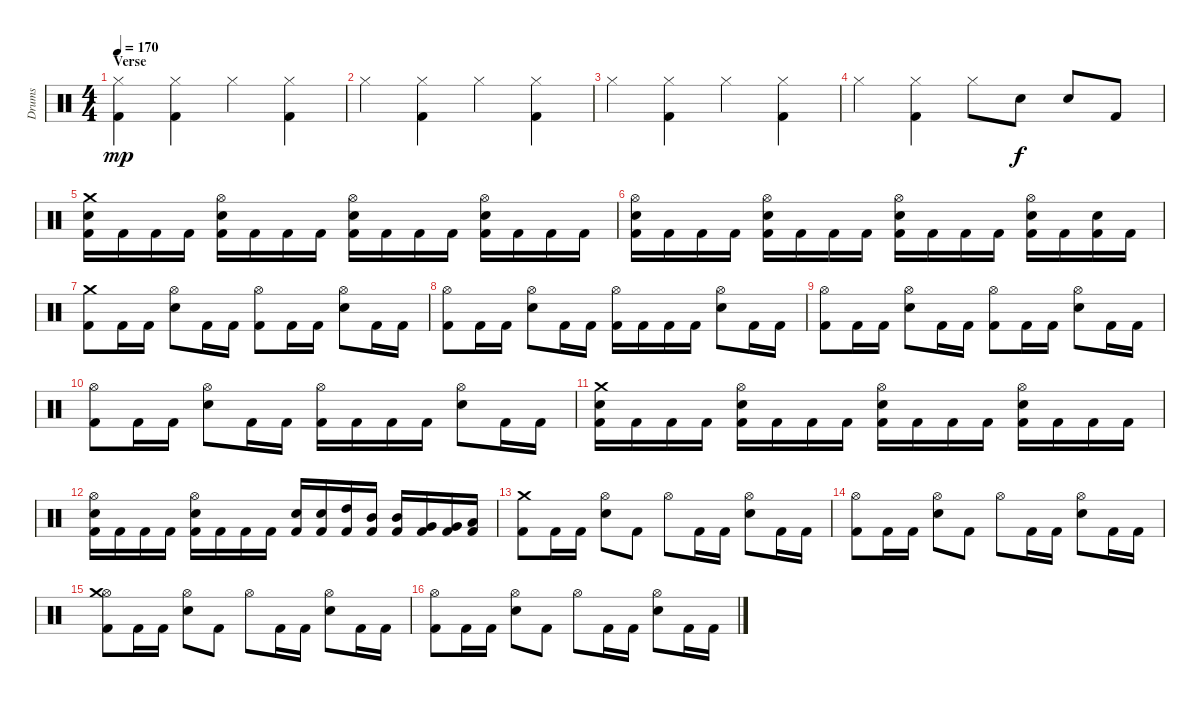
\track ("Drums" "Drums") {instrument percussion}
\staff {score}
\articulation defaults
\ts (4 4)
\section ("" "Verse")
\tempo 170
\clef neutral
\ks c
("Kick (hit) 2" "Hi-Hat (closed)").4{dy mp} ("Kick (hit) 2" "Hi-Hat (closed)").4 "Hi-Hat (closed)".4 ("Kick (hit) 2" "Hi-Hat (closed)").4 |
"Hi-Hat (closed)".4 ("Kick (hit) 2" "Hi-Hat (closed)").4 "Hi-Hat (closed)".4 ("Kick (hit) 2" "Hi-Hat (closed)").4 |
"Hi-Hat (closed)".4 ("Kick (hit) 2" "Hi-Hat (closed)").4 "Hi-Hat (closed)".4 ("Kick (hit) 2" "Hi-Hat (closed)").4 |
"Hi-Hat (closed)".4 ("Kick (hit) 2" "Hi-Hat (closed)").4 "Hi-Hat (closed)".8 "Snare (hit) 2".8{dy f} "Snare (hit) 2".8 "Kick (hit) 2".8 |
("Kick (hit) 2" "Snare (hit) 2" "Crash medium (hit)").16 "Kick (hit) 2".16 "Kick (hit) 2".16 "Kick (hit) 2".16 ("Kick (hit) 2" "Snare (hit) 2" "Hi-Hat (open)").16 "Kick (hit) 2".16 "Kick (hit) 2".16 "Kick (hit) 2".16 ("Kick (hit) 2" "Snare (hit) 2" "Hi-Hat (open)").16 "Kick (hit) 2".16 "Kick (hit) 2".16 "Kick (hit) 2".16 ("Kick (hit) 2" "Snare (hit) 2" "Hi-Hat (open)").16 "Kick (hit) 2".16 "Kick (hit) 2".16 "Kick (hit) 2".16 |
("Kick (hit) 2" "Snare (hit) 2" "Hi-Hat (open)").16 "Kick (hit) 2".16 "Kick (hit) 2".16 "Kick (hit) 2".16 ("Kick (hit) 2" "Snare (hit) 2" "Hi-Hat (open)").16 "Kick (hit) 2".16 "Kick (hit) 2".16 "Kick (hit) 2".16 ("Kick (hit) 2" "Snare (hit) 2" "Hi-Hat (open)").16 "Kick (hit) 2".16 "Kick (hit) 2".16 "Kick (hit) 2".16 ("Kick (hit) 2" "Snare (hit) 2" "Hi-Hat (open)").16 "Kick (hit) 2".16 ("Kick (hit) 2" "Snare (hit) 2").16 "Kick (hit) 2".16 |
("Kick (hit) 2" "Crash medium (hit)").8 "Kick (hit) 2".16 "Kick (hit) 2".16 ("Snare (hit) 2" "Hi-Hat (open)").8 "Kick (hit) 2".16 "Kick (hit) 2".16 ("Kick (hit) 2" "Hi-Hat (open)").8 "Kick (hit) 2".16 "Kick (hit) 2".16 ("Snare (hit) 2" "Hi-Hat (open)").8 "Kick (hit) 2".16 "Kick (hit) 2".16 |
("Kick (hit) 2" "Hi-Hat (open)").8 "Kick (hit) 2".16 "Kick (hit) 2".16 ("Snare (hit) 2" "Hi-Hat (open)").8 "Kick (hit) 2".16 "Kick (hit) 2".16 ("Kick (hit) 2" "Hi-Hat (open)").16 "Kick (hit) 2".16 "Kick (hit) 2".16 "Kick (hit) 2".16 ("Snare (hit) 2" "Hi-Hat (open)").8 "Kick (hit) 2".16 "Kick (hit) 2".16 |
("Kick (hit) 2" "Hi-Hat (open)").8 "Kick (hit) 2".16 "Kick (hit) 2".16 ("Snare (hit) 2" "Hi-Hat (open)").8 "Kick (hit) 2".16 "Kick (hit) 2".16 ("Kick (hit) 2" "Hi-Hat (open)").8 "Kick (hit) 2".16 "Kick (hit) 2".16 ("Snare (hit) 2" "Hi-Hat (open)").8 "Kick (hit) 2".16 "Kick (hit) 2".16 |
("Kick (hit) 2" "Hi-Hat (open)").8 "Kick (hit) 2".16 "Kick (hit) 2".16 ("Snare (hit) 2" "Hi-Hat (open)").8 "Kick (hit) 2".16 "Kick (hit) 2".16 ("Kick (hit) 2" "Hi-Hat (open)").16 "Kick (hit) 2".16 "Kick (hit) 2".16 "Kick (hit) 2".16 ("Snare (hit) 2" "Hi-Hat (open)").8 "Kick (hit) 2".16 "Kick (hit) 2".16 |
("Kick (hit) 2" "Snare (hit) 2" "Crash medium (hit)").16 "Kick (hit) 2".16 "Kick (hit) 2".16 "Kick (hit) 2".16 ("Kick (hit) 2" "Snare (hit) 2" "Hi-Hat (open)").16 "Kick (hit) 2".16 "Kick (hit) 2".16 "Kick (hit) 2".16 ("Kick (hit) 2" "Snare (hit) 2" "Hi-Hat (open)").16 "Kick (hit) 2".16 "Kick (hit) 2".16 "Kick (hit) 2".16 ("Kick (hit) 2" "Snare (hit) 2" "Hi-Hat (open)").16 "Kick (hit) 2".16 "Kick (hit) 2".16 "Kick (hit) 2".16 |
("Kick (hit) 2" "Snare (hit) 2" "Hi-Hat (open)").16 "Kick (hit) 2".16 "Kick (hit) 2".16 "Kick (hit) 2".16 ("Kick (hit) 2" "Snare (hit) 2" "Hi-Hat (open)").16 "Kick (hit) 2".16 "Kick (hit) 2".16 "Kick (hit) 2".16 ("Kick (hit) 2" "Snare (hit) 2").16 ("Kick (hit) 2" "Snare (hit) 2").16 ("Kick (hit) 2" "High Tom (hit)").16 ("Kick (hit) 2" "Mid Tom (hit)").16 ("Kick (hit) 2" "Mid Tom (hit)").16 ("Kick (hit) 2" "Very Low Tom (hit)").16 ("Kick (hit) 2" "Very Low Tom (hit)").16 ("Kick (hit) 2" "Low Floor Tom (hit)").16 |
\section ("" "")
("Kick (hit) 2" "Crash medium (hit)").8 "Kick (hit) 2".16 "Kick (hit) 2".16 ("Snare (hit) 2" "Hi-Hat (open)").8 "Kick (hit) 2".8 "Hi-Hat (open)".8 "Kick (hit) 2".16 "Kick (hit) 2".16 ("Snare (hit) 2" "Hi-Hat (open)").8 "Kick (hit) 2".16 "Kick (hit) 2".16 |
("Kick (hit) 2" "Hi-Hat (open)").8 "Kick (hit) 2".16 "Kick (hit) 2".16 ("Snare (hit) 2" "Hi-Hat (open)").8 "Kick (hit) 2".8 "Hi-Hat (open)".8 "Kick (hit) 2".16 "Kick (hit) 2".16 ("Snare (hit) 2" "Hi-Hat (open)").8 "Kick (hit) 2".16 "Kick (hit) 2".16 |
("Kick (hit) 2" "Hi-Hat (open)" "Crash medium (hit)").8 "Kick (hit) 2".16 "Kick (hit) 2".16 ("Snare (hit) 2" "Hi-Hat (open)").8 "Kick (hit) 2".8 "Hi-Hat (open)".8 "Kick (hit) 2".16 "Kick (hit) 2".16 ("Snare (hit) 2" "Hi-Hat (open)").8 "Kick (hit) 2".16 "Kick (hit) 2".16 |
("Kick (hit) 2" "Hi-Hat (open)").8 "Kick (hit) 2".16 "Kick (hit) 2".16 ("Snare (hit) 2" "Hi-Hat (open)").8 "Kick (hit) 2".8 "Hi-Hat (open)".8 "Kick (hit) 2".16 "Kick (hit) 2".16 ("Snare (hit) 2" "Hi-Hat (open)").8 "Kick (hit) 2".16 "Kick (hit) 2".16
